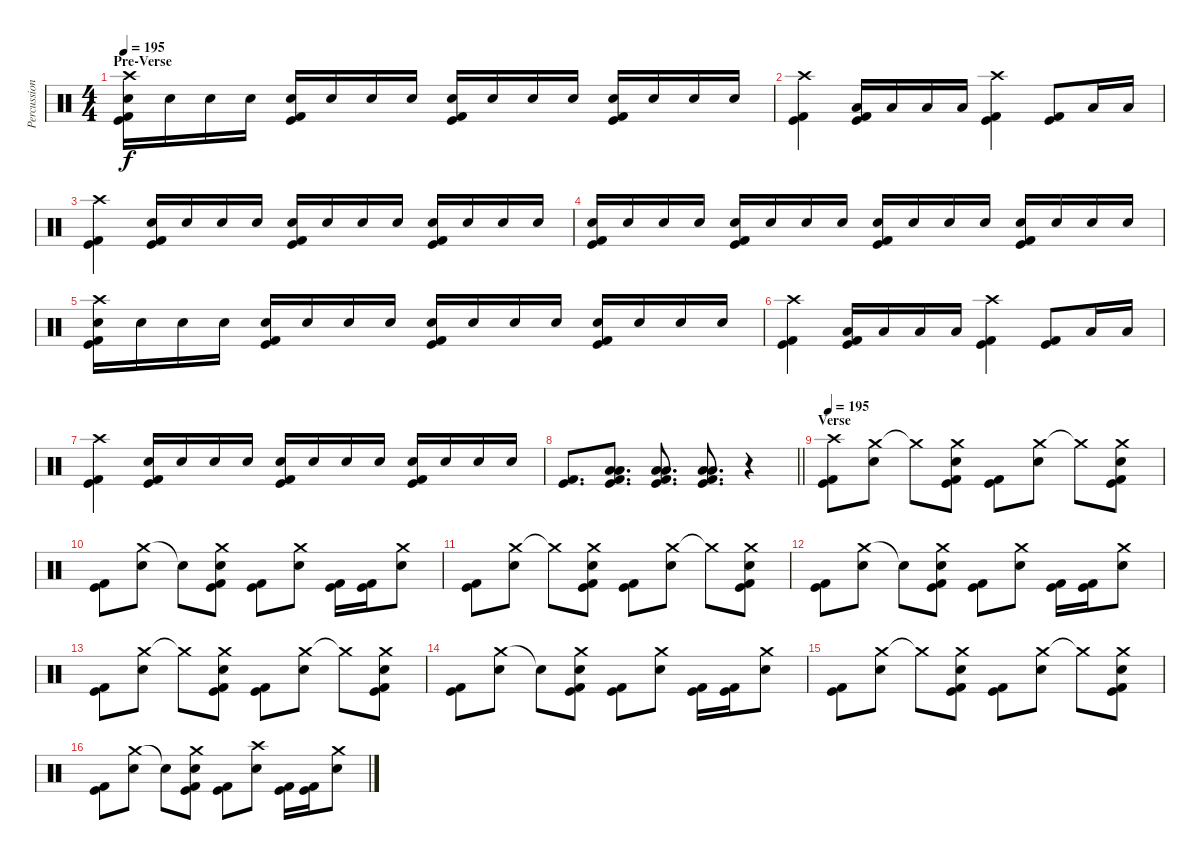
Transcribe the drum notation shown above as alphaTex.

\track ("Percussion" "Percussion") {instrument percussion}
\staff {score}
\articulation defaults
\ts (4 4)
\section ("" "Pre-Verse")
\tempo 195
\clef neutral
\ks c
("Crash high (hit)" "Electric Snare (hit)" "Kick (hit)" "Kick (hit) 2").16{dy f} "Electric Snare (hit)".16 "Electric Snare (hit)".16 "Electric Snare (hit)".16 ("Electric Snare (hit)" "Kick (hit)" "Kick (hit) 2").16 "Electric Snare (hit)".16 "Electric Snare (hit)".16 "Electric Snare (hit)".16 ("Electric Snare (hit)" "Kick (hit)" "Kick (hit) 2").16 "Electric Snare (hit)".16 "Electric Snare (hit)".16 "Electric Snare (hit)".16 ("Electric Snare (hit)" "Kick (hit)" "Kick (hit) 2").16 "Electric Snare (hit)".16 "Electric Snare (hit)".16 "Electric Snare (hit)".16 |
("Crash high (hit)" "Kick (hit)" "Kick (hit) 2").4 ("Low Tom (hit)" "Kick (hit)" "Kick (hit) 2").16 "Low Tom (hit)".16 "Low Tom (hit)".16 "Low Tom (hit)".16 ("Crash high (hit)" "Kick (hit)" "Kick (hit) 2").4 ("Kick (hit)" "Kick (hit) 2").8 "Low Tom (hit)".16 "Low Tom (hit)".16 |
("Crash high (hit)" "Kick (hit)" "Kick (hit) 2").4 ("Electric Snare (hit)" "Kick (hit)" "Kick (hit) 2").16 "Electric Snare (hit)".16 "Electric Snare (hit)".16 "Electric Snare (hit)".16 ("Electric Snare (hit)" "Kick (hit)" "Kick (hit) 2").16 "Electric Snare (hit)".16 "Electric Snare (hit)".16 "Electric Snare (hit)".16 ("Electric Snare (hit)" "Kick (hit)" "Kick (hit) 2").16 "Electric Snare (hit)".16 "Electric Snare (hit)".16 "Electric Snare (hit)".16 |
("Electric Snare (hit)" "Kick (hit)" "Kick (hit) 2").16 "Electric Snare (hit)".16 "Electric Snare (hit)".16 "Electric Snare (hit)".16 ("Electric Snare (hit)" "Kick (hit)" "Kick (hit) 2").16 "Electric Snare (hit)".16 "Electric Snare (hit)".16 "Electric Snare (hit)".16 ("Electric Snare (hit)" "Kick (hit)" "Kick (hit) 2").16 "Electric Snare (hit)".16 "Electric Snare (hit)".16 "Electric Snare (hit)".16 ("Electric Snare (hit)" "Kick (hit)" "Kick (hit) 2").16 "Electric Snare (hit)".16 "Electric Snare (hit)".16 "Electric Snare (hit)".16 |
("Crash high (hit)" "Electric Snare (hit)" "Kick (hit)" "Kick (hit) 2").16 "Electric Snare (hit)".16 "Electric Snare (hit)".16 "Electric Snare (hit)".16 ("Electric Snare (hit)" "Kick (hit)" "Kick (hit) 2").16 "Electric Snare (hit)".16 "Electric Snare (hit)".16 "Electric Snare (hit)".16 ("Electric Snare (hit)" "Kick (hit)" "Kick (hit) 2").16 "Electric Snare (hit)".16 "Electric Snare (hit)".16 "Electric Snare (hit)".16 ("Electric Snare (hit)" "Kick (hit)" "Kick (hit) 2").16 "Electric Snare (hit)".16 "Electric Snare (hit)".16 "Electric Snare (hit)".16 |
("Crash high (hit)" "Kick (hit)" "Kick (hit) 2").4 ("Low Tom (hit)" "Kick (hit)" "Kick (hit) 2").16 "Low Tom (hit)".16 "Low Tom (hit)".16 "Low Tom (hit)".16 ("Crash high (hit)" "Kick (hit)" "Kick (hit) 2").4 ("Kick (hit)" "Kick (hit) 2").8 "Low Tom (hit)".16 "Low Tom (hit)".16 |
("Crash high (hit)" "Kick (hit)" "Kick (hit) 2").4 ("Electric Snare (hit)" "Kick (hit)" "Kick (hit) 2").16 "Electric Snare (hit)".16 "Electric Snare (hit)".16 "Electric Snare (hit)".16 ("Electric Snare (hit)" "Kick (hit)" "Kick (hit) 2").16 "Electric Snare (hit)".16 "Electric Snare (hit)".16 "Electric Snare (hit)".16 ("Electric Snare (hit)" "Kick (hit)" "Kick (hit) 2").16 "Electric Snare (hit)".16 "Electric Snare (hit)".16 "Electric Snare (hit)".16 |
\barLineRight lightlight
("Kick (hit)" "Kick (hit) 2").8{d} ("Low Tom (hit)" "Low Floor Tom (hit)" "Kick (hit)" "Kick (hit) 2").8{d} ("Low Tom (hit)" "Low Floor Tom (hit)" "Kick (hit)" "Kick (hit) 2").8{d} ("Low Tom (hit)" "Low Floor Tom (hit)" "Kick (hit)" "Kick (hit) 2").8{d} r.4 |
\section ("" "Verse")
\tempo 195
("Crash high (hit)" "Kick (hit)" "Kick (hit) 2").8 ("Crash medium (hit)" "Electric Snare (hit)").8 "Crash medium (hit)"{t}.8 ("Crash medium (hit)" "Electric Snare (hit)" "Kick (hit)" "Kick (hit) 2").8 ("Kick (hit)" "Kick (hit) 2").8 ("Crash medium (hit)" "Electric Snare (hit)").8 "Crash medium (hit)"{t}.8 ("Crash medium (hit)" "Electric Snare (hit)" "Kick (hit)" "Kick (hit) 2").8 |
("Kick (hit)" "Kick (hit) 2").8 ("Crash medium (hit)" "Electric Snare (hit)").8 "Snare (hit)"{t}.8 ("Crash medium (hit)" "Electric Snare (hit)" "Kick (hit)" "Kick (hit) 2").8 ("Kick (hit)" "Kick (hit) 2").8 ("Crash medium (hit)" "Electric Snare (hit)").8 ("Kick (hit)" "Kick (hit) 2").16 ("Kick (hit)" "Kick (hit) 2").16 ("Crash medium (hit)" "Electric Snare (hit)").8 |
("Kick (hit)" "Kick (hit) 2").8 ("Crash medium (hit)" "Electric Snare (hit)").8 "Crash medium (hit)"{t}.8 ("Crash medium (hit)" "Electric Snare (hit)" "Kick (hit)" "Kick (hit) 2").8 ("Kick (hit)" "Kick (hit) 2").8 ("Crash medium (hit)" "Electric Snare (hit)").8 "Crash medium (hit)"{t}.8 ("Crash medium (hit)" "Electric Snare (hit)" "Kick (hit)" "Kick (hit) 2").8 |
("Kick (hit)" "Kick (hit) 2").8 ("Crash medium (hit)" "Electric Snare (hit)").8 "Snare (hit)"{t}.8 ("Crash medium (hit)" "Electric Snare (hit)" "Kick (hit)" "Kick (hit) 2").8 ("Kick (hit)" "Kick (hit) 2").8 ("Crash medium (hit)" "Electric Snare (hit)").8 ("Kick (hit)" "Kick (hit) 2").16 ("Kick (hit)" "Kick (hit) 2").16 ("Crash medium (hit)" "Electric Snare (hit)").8 |
("Kick (hit)" "Kick (hit) 2").8 ("Crash medium (hit)" "Electric Snare (hit)").8 "Crash medium (hit)"{t}.8 ("Crash medium (hit)" "Electric Snare (hit)" "Kick (hit)" "Kick (hit) 2").8 ("Kick (hit)" "Kick (hit) 2").8 ("Crash medium (hit)" "Electric Snare (hit)").8 "Crash medium (hit)"{t}.8 ("Crash medium (hit)" "Electric Snare (hit)" "Kick (hit)" "Kick (hit) 2").8 |
("Kick (hit)" "Kick (hit) 2").8 ("Crash medium (hit)" "Electric Snare (hit)").8 "Snare (hit)"{t}.8 ("Crash medium (hit)" "Electric Snare (hit)" "Kick (hit)" "Kick (hit) 2").8 ("Kick (hit)" "Kick (hit) 2").8 ("Crash medium (hit)" "Electric Snare (hit)").8 ("Kick (hit)" "Kick (hit) 2").16 ("Kick (hit)" "Kick (hit) 2").16 ("Crash medium (hit)" "Electric Snare (hit)").8 |
("Kick (hit)" "Kick (hit) 2").8 ("Crash medium (hit)" "Electric Snare (hit)").8 "Crash medium (hit)"{t}.8 ("Crash medium (hit)" "Electric Snare (hit)" "Kick (hit)" "Kick (hit) 2").8 ("Kick (hit)" "Kick (hit) 2").8 ("Crash medium (hit)" "Electric Snare (hit)").8 "Crash medium (hit)"{t}.8 ("Crash medium (hit)" "Electric Snare (hit)" "Kick (hit)" "Kick (hit) 2").8 |
("Kick (hit)" "Kick (hit) 2").8 ("Crash medium (hit)" "Electric Snare (hit)").8 "Snare (hit)"{t}.8 ("Crash medium (hit)" "Electric Snare (hit)" "Kick (hit)" "Kick (hit) 2").8 ("Kick (hit)" "Kick (hit) 2").8 ("Crash high (hit)" "Electric Snare (hit)").8 ("Kick (hit)" "Kick (hit) 2").16 ("Kick (hit)" "Kick (hit) 2").16 ("Crash medium (hit)" "Electric Snare (hit)").8
